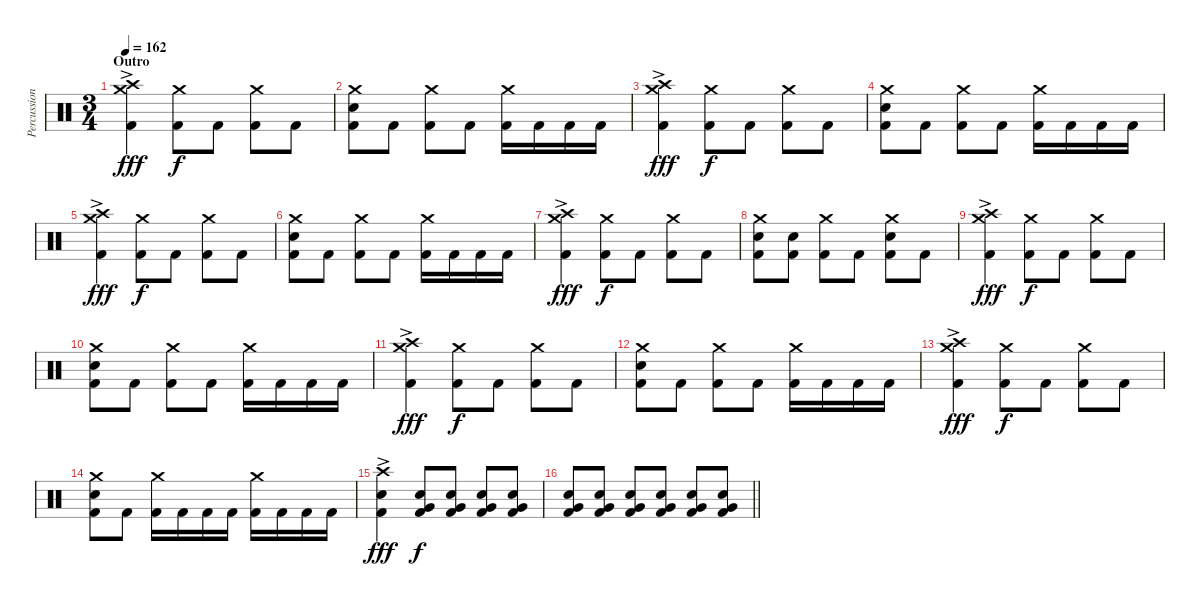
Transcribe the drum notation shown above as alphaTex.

\track ("Percussion" "Percussion") {instrument percussion}
\staff {score}
\articulation defaults
\ts (3 4)
\section ("" "Outro")
\tempo 162
\clef neutral
\ks c
("Crash high (hit)"{ac} "Crash medium (hit)" "Kick (hit) 2").4{dy fff} ("Crash medium (hit)" "Kick (hit) 2").8{dy f} "Kick (hit) 2".8 ("Crash medium (hit)" "Kick (hit) 2").8 "Kick (hit) 2".8 |
("Crash medium (hit)" "Electric Snare (hit)" "Kick (hit) 2").8 "Kick (hit) 2".8 ("Crash medium (hit)" "Kick (hit) 2").8 "Kick (hit) 2".8 ("Crash medium (hit)" "Kick (hit) 2").16 "Kick (hit) 2".16 "Kick (hit) 2".16 "Kick (hit) 2".16 |
("Crash high (hit)"{ac} "Crash medium (hit)" "Kick (hit) 2").4{dy fff} ("Crash medium (hit)" "Kick (hit) 2").8{dy f} "Kick (hit) 2".8 ("Crash medium (hit)" "Kick (hit) 2").8 "Kick (hit) 2".8 |
("Crash medium (hit)" "Electric Snare (hit)" "Kick (hit) 2").8 "Kick (hit) 2".8 ("Crash medium (hit)" "Kick (hit) 2").8 "Kick (hit) 2".8 ("Crash medium (hit)" "Kick (hit) 2").16 "Kick (hit) 2".16 "Kick (hit) 2".16 "Kick (hit) 2".16 |
("Crash high (hit)"{ac} "Crash medium (hit)" "Kick (hit) 2").4{dy fff} ("Crash medium (hit)" "Kick (hit) 2").8{dy f} "Kick (hit) 2".8 ("Crash medium (hit)" "Kick (hit) 2").8 "Kick (hit) 2".8 |
("Crash medium (hit)" "Electric Snare (hit)" "Kick (hit) 2").8 "Kick (hit) 2".8 ("Crash medium (hit)" "Kick (hit) 2").8 "Kick (hit) 2".8 ("Crash medium (hit)" "Kick (hit) 2").16 "Kick (hit) 2".16 "Kick (hit) 2".16 "Kick (hit) 2".16 |
("Crash high (hit)"{ac} "Crash medium (hit)" "Kick (hit) 2").4{dy fff} ("Crash medium (hit)" "Kick (hit) 2").8{dy f} "Kick (hit) 2".8 ("Crash medium (hit)" "Kick (hit) 2").8 "Kick (hit) 2".8 |
("Crash medium (hit)" "Electric Snare (hit)" "Kick (hit) 2").8 ("Electric Snare (hit)" "Kick (hit) 2").8 ("Crash medium (hit)" "Kick (hit) 2").8 "Kick (hit) 2".8 ("Crash medium (hit)" "Electric Snare (hit)" "Kick (hit) 2").8 "Kick (hit) 2".8 |
("Crash high (hit)"{ac} "Crash medium (hit)" "Kick (hit) 2").4{dy fff} ("Crash medium (hit)" "Kick (hit) 2").8{dy f} "Kick (hit) 2".8 ("Crash medium (hit)" "Kick (hit) 2").8 "Kick (hit) 2".8 |
("Crash medium (hit)" "Electric Snare (hit)" "Kick (hit) 2").8 "Kick (hit) 2".8 ("Crash medium (hit)" "Kick (hit) 2").8 "Kick (hit) 2".8 ("Crash medium (hit)" "Kick (hit) 2").16 "Kick (hit) 2".16 "Kick (hit) 2".16 "Kick (hit) 2".16 |
("Crash high (hit)"{ac} "Crash medium (hit)" "Kick (hit) 2").4{dy fff} ("Crash medium (hit)" "Kick (hit) 2").8{dy f} "Kick (hit) 2".8 ("Crash medium (hit)" "Kick (hit) 2").8 "Kick (hit) 2".8 |
("Crash medium (hit)" "Electric Snare (hit)" "Kick (hit) 2").8 "Kick (hit) 2".8 ("Crash medium (hit)" "Kick (hit) 2").8 "Kick (hit) 2".8 ("Crash medium (hit)" "Kick (hit) 2").16 "Kick (hit) 2".16 "Kick (hit) 2".16 "Kick (hit) 2".16 |
("Crash high (hit)"{ac} "Crash medium (hit)" "Kick (hit) 2").4{dy fff} ("Crash medium (hit)" "Kick (hit) 2").8{dy f} "Kick (hit) 2".8 ("Crash medium (hit)" "Kick (hit) 2").8 "Kick (hit) 2".8 |
("Crash medium (hit)" "Electric Snare (hit)" "Kick (hit) 2").8 "Kick (hit) 2".8 ("Crash medium (hit)" "Kick (hit) 2").16 "Kick (hit) 2".16 "Kick (hit) 2".16 "Kick (hit) 2".16 ("Crash medium (hit)" "Kick (hit) 2").16 "Kick (hit) 2".16 "Kick (hit) 2".16 "Kick (hit) 2".16 |
("Crash high (hit)"{ac} "Electric Snare (hit)" "Kick (hit) 2").4{dy fff} ("Electric Snare (hit)" "Very Low Tom (hit)" "Kick (hit) 2").8{dy f} ("Electric Snare (hit)" "Very Low Tom (hit)" "Kick (hit) 2").8 ("Electric Snare (hit)" "Very Low Tom (hit)" "Kick (hit) 2").8 ("Electric Snare (hit)" "Very Low Tom (hit)" "Kick (hit) 2").8 |
\barLineRight lightlight
("Electric Snare (hit)" "Very Low Tom (hit)" "Kick (hit) 2").8 ("Electric Snare (hit)" "Very Low Tom (hit)" "Kick (hit) 2").8 ("Electric Snare (hit)" "Very Low Tom (hit)" "Kick (hit) 2").8 ("Electric Snare (hit)" "Very Low Tom (hit)" "Kick (hit) 2").8 ("Electric Snare (hit)" "Very Low Tom (hit)" "Kick (hit) 2").8 ("Electric Snare (hit)" "Very Low Tom (hit)" "Kick (hit) 2").8
